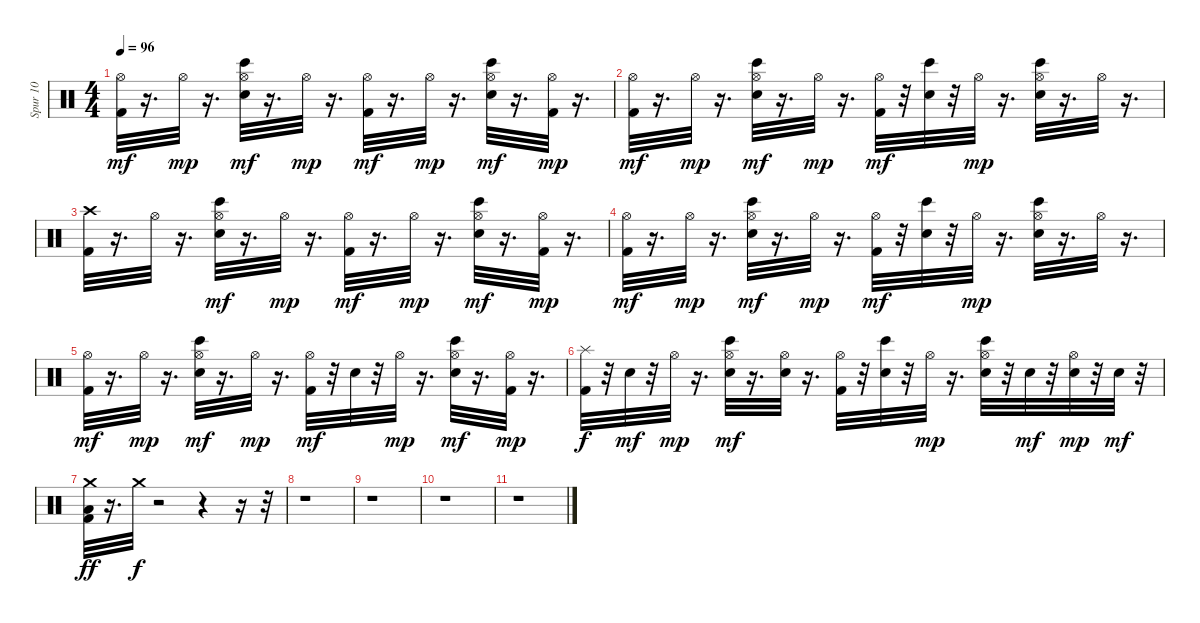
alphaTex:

\track ("Spur 10" "Spur 10") {instrument percussion}
\staff {score}
\articulation defaults
\ts (4 4)
\tempo 96
\clef neutral
\ks c
("Hi-Hat (open)" "Kick (hit) 2").32{dy mf} r.16{d} "Hi-Hat (open)".32{dy mp} r.16{d} ("Hi-Hat (open)" "Snare (hit) 2" "Bongo High (hit)").32{dy mf} r.16{d} "Hi-Hat (open)".32{dy mp} r.16{d} ("Hi-Hat (open)" "Kick (hit) 2").32{dy mf} r.16{d} "Hi-Hat (open)".32{dy mp} r.16{d} ("Hi-Hat (open)" "Snare (hit) 2" "Bongo High (hit)").32{dy mf} r.16{d} ("Hi-Hat (open)" "Kick (hit) 2").32{dy mp} r.16{d} |
("Hi-Hat (open)" "Kick (hit) 2").32{dy mf} r.16{d} "Hi-Hat (open)".32{dy mp} r.16{d} ("Hi-Hat (open)" "Snare (hit) 2" "Bongo High (hit)").32{dy mf} r.16{d} "Hi-Hat (open)".32{dy mp} r.16{d} ("Hi-Hat (open)" "Kick (hit) 2").32{dy mf} r.32 ("Snare (hit) 2" "Bongo High (hit)").32 r.32 "Hi-Hat (open)".32{dy mp} r.16{d} ("Hi-Hat (open)" "Snare (hit) 2" "Bongo High (hit)").32 r.16{d} "Hi-Hat (open)".32 r.16{d} |
("Crash high (hit)" "Kick (hit) 2").32 r.16{d} "Hi-Hat (open)".32 r.16{d} ("Hi-Hat (open)" "Snare (hit) 2" "Bongo High (hit)").32{dy mf} r.16{d} "Hi-Hat (open)".32{dy mp} r.16{d} ("Hi-Hat (open)" "Kick (hit) 2").32{dy mf} r.16{d} "Hi-Hat (open)".32{dy mp} r.16{d} ("Hi-Hat (open)" "Snare (hit) 2" "Bongo High (hit)").32{dy mf} r.16{d} ("Hi-Hat (open)" "Kick (hit) 2").32{dy mp} r.16{d} |
("Hi-Hat (open)" "Kick (hit) 2").32{dy mf} r.16{d} "Hi-Hat (open)".32{dy mp} r.16{d} ("Hi-Hat (open)" "Snare (hit) 2" "Bongo High (hit)").32{dy mf} r.16{d} "Hi-Hat (open)".32{dy mp} r.16{d} ("Hi-Hat (open)" "Kick (hit) 2").32{dy mf} r.32 ("Snare (hit) 2" "Bongo High (hit)").32 r.32 "Hi-Hat (open)".32{dy mp} r.16{d} ("Hi-Hat (open)" "Snare (hit) 2" "Bongo High (hit)").32 r.16{d} "Hi-Hat (open)".32 r.16{d} |
("Hi-Hat (open)" "Kick (hit) 2").32{dy mf} r.16{d} "Hi-Hat (open)".32{dy mp} r.16{d} ("Hi-Hat (open)" "Snare (hit) 2" "Bongo High (hit)").32{dy mf} r.16{d} "Hi-Hat (open)".32{dy mp} r.16{d} ("Hi-Hat (open)" "Kick (hit) 2").32{dy mf} r.32 "Snare (hit) 2".32 r.32 "Hi-Hat (open)".32{dy mp} r.16{d} ("Hi-Hat (open)" "Snare (hit) 2" "Bongo High (hit)").32{dy mf} r.16{d} ("Hi-Hat (open)" "Kick (hit) 2").32{dy mp} r.16{d} |
("Splash (hit)" "Kick (hit) 2").32{dy f} r.32 "Snare (hit) 2".32{dy mf} r.32 "Hi-Hat (open)".32{dy mp} r.16{d} ("Hi-Hat (open)" "Snare (hit) 2" "Bongo High (hit)").32{dy mf} r.16{d} ("Hi-Hat (open)" "Snare (hit) 2").32 r.16{d} ("Hi-Hat (open)" "Kick (hit) 2").32 r.32 ("Snare (hit) 2" "Bongo High (hit)").32 r.32 "Hi-Hat (open)".32{dy mp} r.16{d} ("Hi-Hat (open)" "Snare (hit) 2" "Bongo High (hit)").32 r.32 "Snare (hit) 2".32{dy mf} r.32 ("Hi-Hat (open)" "Snare (hit) 2").32{dy mp} r.32 "Snare (hit) 2".32{dy mf} r.32 |
("Crash medium (hit)" "Low Floor Tom (hit)" "Kick (hit) 2").32{dy ff} r.16{d} "Crash medium (hit)".32{dy f} r.2 r.4 r.16 r.32 |
r.1 |
r.1 |
r.1 |
r.1
